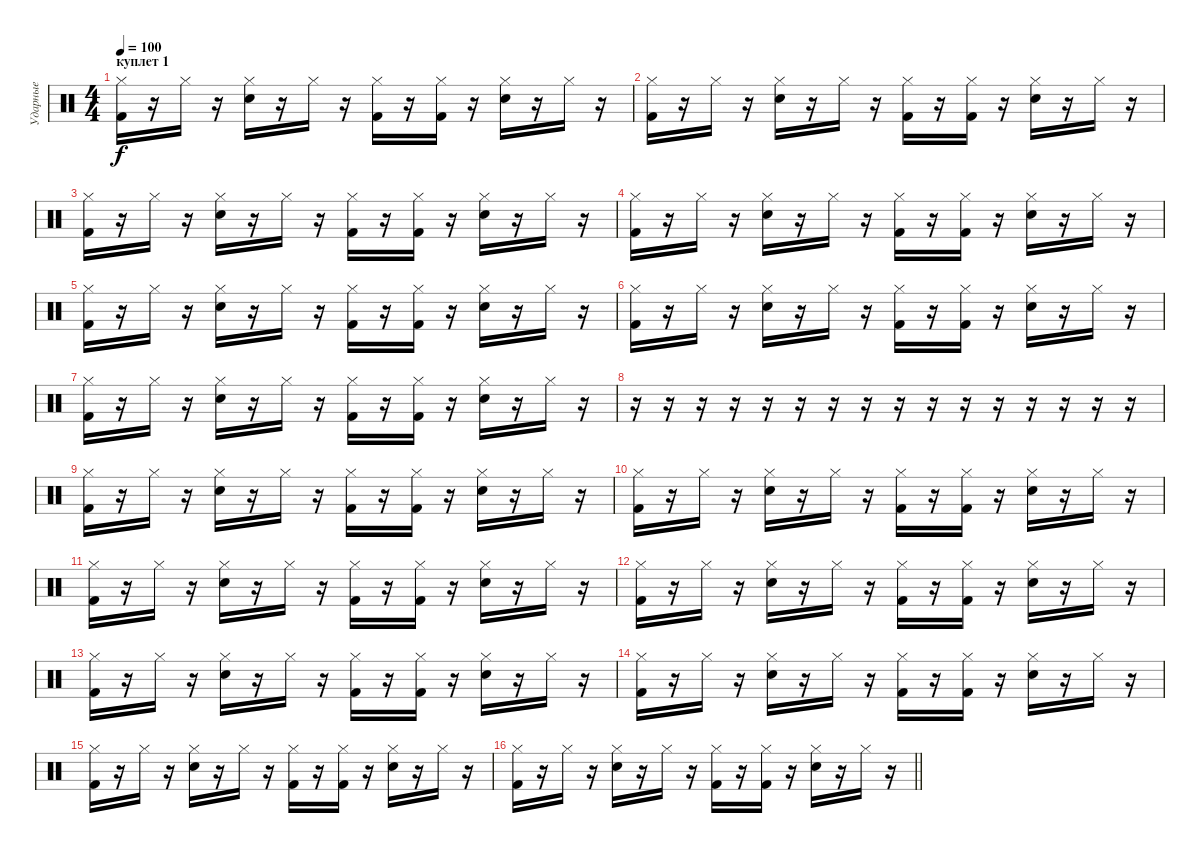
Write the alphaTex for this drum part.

\track ("Ударные" "Ударные") {instrument percussion}
\staff {score}
\articulation defaults
\ts (4 4)
\section ("" "куплет 1")
\tempo 100
\clef neutral
\ks c
("Kick (hit) 2" "Hi-Hat (closed)").16{dy f} r.16 "Hi-Hat (closed)".16 r.16 ("Snare (hit) 2" "Hi-Hat (closed)").16 r.16 "Hi-Hat (closed)".16 r.16 ("Kick (hit) 2" "Hi-Hat (closed)").16 r.16 ("Kick (hit) 2" "Hi-Hat (closed)").16 r.16 ("Snare (hit) 2" "Hi-Hat (closed)").16 r.16 "Hi-Hat (closed)".16 r.16 |
("Kick (hit) 2" "Hi-Hat (closed)").16 r.16 "Hi-Hat (closed)".16 r.16 ("Snare (hit) 2" "Hi-Hat (closed)").16 r.16 "Hi-Hat (closed)".16 r.16 ("Kick (hit) 2" "Hi-Hat (closed)").16 r.16 ("Kick (hit) 2" "Hi-Hat (closed)").16 r.16 ("Snare (hit) 2" "Hi-Hat (closed)").16 r.16 "Hi-Hat (closed)".16 r.16 |
("Kick (hit) 2" "Hi-Hat (closed)").16 r.16 "Hi-Hat (closed)".16 r.16 ("Snare (hit) 2" "Hi-Hat (closed)").16 r.16 "Hi-Hat (closed)".16 r.16 ("Kick (hit) 2" "Hi-Hat (closed)").16 r.16 ("Kick (hit) 2" "Hi-Hat (closed)").16 r.16 ("Snare (hit) 2" "Hi-Hat (closed)").16 r.16 "Hi-Hat (closed)".16 r.16 |
("Kick (hit) 2" "Hi-Hat (closed)").16 r.16 "Hi-Hat (closed)".16 r.16 ("Snare (hit) 2" "Hi-Hat (closed)").16 r.16 "Hi-Hat (closed)".16 r.16 ("Kick (hit) 2" "Hi-Hat (closed)").16 r.16 ("Kick (hit) 2" "Hi-Hat (closed)").16 r.16 ("Snare (hit) 2" "Hi-Hat (closed)").16 r.16 "Hi-Hat (closed)".16 r.16 |
("Kick (hit) 2" "Hi-Hat (closed)").16 r.16 "Hi-Hat (closed)".16 r.16 ("Snare (hit) 2" "Hi-Hat (closed)").16 r.16 "Hi-Hat (closed)".16 r.16 ("Kick (hit) 2" "Hi-Hat (closed)").16 r.16 ("Kick (hit) 2" "Hi-Hat (closed)").16 r.16 ("Snare (hit) 2" "Hi-Hat (closed)").16 r.16 "Hi-Hat (closed)".16 r.16 |
("Kick (hit) 2" "Hi-Hat (closed)").16 r.16 "Hi-Hat (closed)".16 r.16 ("Snare (hit) 2" "Hi-Hat (closed)").16 r.16 "Hi-Hat (closed)".16 r.16 ("Kick (hit) 2" "Hi-Hat (closed)").16 r.16 ("Kick (hit) 2" "Hi-Hat (closed)").16 r.16 ("Snare (hit) 2" "Hi-Hat (closed)").16 r.16 "Hi-Hat (closed)".16 r.16 |
("Kick (hit) 2" "Hi-Hat (closed)").16 r.16 "Hi-Hat (closed)".16 r.16 ("Snare (hit) 2" "Hi-Hat (closed)").16 r.16 "Hi-Hat (closed)".16 r.16 ("Kick (hit) 2" "Hi-Hat (closed)").16 r.16 ("Kick (hit) 2" "Hi-Hat (closed)").16 r.16 ("Snare (hit) 2" "Hi-Hat (closed)").16 r.16 "Hi-Hat (closed)".16 r.16 |
r.16 r.16 r.16 r.16 r.16 r.16 r.16 r.16 r.16 r.16 r.16 r.16 r.16 r.16 r.16 r.16 |
("Kick (hit) 2" "Hi-Hat (closed)").16 r.16 "Hi-Hat (closed)".16 r.16 ("Snare (hit) 2" "Hi-Hat (closed)").16 r.16 "Hi-Hat (closed)".16 r.16 ("Kick (hit) 2" "Hi-Hat (closed)").16 r.16 ("Kick (hit) 2" "Hi-Hat (closed)").16 r.16 ("Snare (hit) 2" "Hi-Hat (closed)").16 r.16 "Hi-Hat (closed)".16 r.16 |
("Kick (hit) 2" "Hi-Hat (closed)").16 r.16 "Hi-Hat (closed)".16 r.16 ("Snare (hit) 2" "Hi-Hat (closed)").16 r.16 "Hi-Hat (closed)".16 r.16 ("Kick (hit) 2" "Hi-Hat (closed)").16 r.16 ("Kick (hit) 2" "Hi-Hat (closed)").16 r.16 ("Snare (hit) 2" "Hi-Hat (closed)").16 r.16 "Hi-Hat (closed)".16 r.16 |
("Kick (hit) 2" "Hi-Hat (closed)").16 r.16 "Hi-Hat (closed)".16 r.16 ("Snare (hit) 2" "Hi-Hat (closed)").16 r.16 "Hi-Hat (closed)".16 r.16 ("Kick (hit) 2" "Hi-Hat (closed)").16 r.16 ("Kick (hit) 2" "Hi-Hat (closed)").16 r.16 ("Snare (hit) 2" "Hi-Hat (closed)").16 r.16 "Hi-Hat (closed)".16 r.16 |
("Kick (hit) 2" "Hi-Hat (closed)").16 r.16 "Hi-Hat (closed)".16 r.16 ("Snare (hit) 2" "Hi-Hat (closed)").16 r.16 "Hi-Hat (closed)".16 r.16 ("Kick (hit) 2" "Hi-Hat (closed)").16 r.16 ("Kick (hit) 2" "Hi-Hat (closed)").16 r.16 ("Snare (hit) 2" "Hi-Hat (closed)").16 r.16 "Hi-Hat (closed)".16 r.16 |
("Kick (hit) 2" "Hi-Hat (closed)").16 r.16 "Hi-Hat (closed)".16 r.16 ("Snare (hit) 2" "Hi-Hat (closed)").16 r.16 "Hi-Hat (closed)".16 r.16 ("Kick (hit) 2" "Hi-Hat (closed)").16 r.16 ("Kick (hit) 2" "Hi-Hat (closed)").16 r.16 ("Snare (hit) 2" "Hi-Hat (closed)").16 r.16 "Hi-Hat (closed)".16 r.16 |
("Kick (hit) 2" "Hi-Hat (closed)").16 r.16 "Hi-Hat (closed)".16 r.16 ("Snare (hit) 2" "Hi-Hat (closed)").16 r.16 "Hi-Hat (closed)".16 r.16 ("Kick (hit) 2" "Hi-Hat (closed)").16 r.16 ("Kick (hit) 2" "Hi-Hat (closed)").16 r.16 ("Snare (hit) 2" "Hi-Hat (closed)").16 r.16 "Hi-Hat (closed)".16 r.16 |
("Kick (hit) 2" "Hi-Hat (closed)").16 r.16 "Hi-Hat (closed)".16 r.16 ("Snare (hit) 2" "Hi-Hat (closed)").16 r.16 "Hi-Hat (closed)".16 r.16 ("Kick (hit) 2" "Hi-Hat (closed)").16 r.16 ("Kick (hit) 2" "Hi-Hat (closed)").16 r.16 ("Snare (hit) 2" "Hi-Hat (closed)").16 r.16 "Hi-Hat (closed)".16 r.16 |
\barLineRight lightlight
("Kick (hit) 2" "Hi-Hat (closed)").16 r.16 "Hi-Hat (closed)".16 r.16 ("Snare (hit) 2" "Hi-Hat (closed)").16 r.16 "Hi-Hat (closed)".16 r.16 ("Kick (hit) 2" "Hi-Hat (closed)").16 r.16 ("Kick (hit) 2" "Hi-Hat (closed)").16 r.16 ("Snare (hit) 2" "Hi-Hat (closed)").16 r.16 "Hi-Hat (closed)".16 r.16
